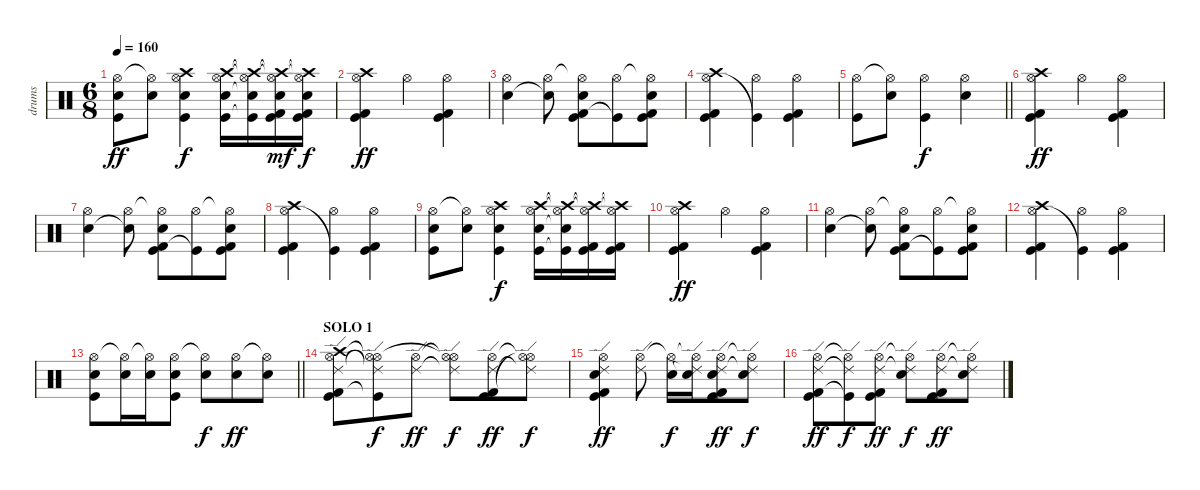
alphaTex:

\track ("drums" "drums") {instrument percussion}
\staff {score}
\articulation defaults
\ts (6 8)
\tempo 160
\clef neutral
\ks c
("Hi-Hat (open)" "Electric Snare (hit)" "Kick (hit)").8{dy ff} ("Hi-Hat (open)"{t} "Electric Snare (hit)").8 ("Crash high (hit)" "Hi-Hat (open)" "Electric Snare (hit)" "Kick (hit)").4{dy f} ("Crash high (hit)" "Hi-Hat (open)" "Electric Snare (hit)" "Kick (hit)").16 ("Crash high (hit)"{t} "Hi-Hat (open)"{t} "Electric Snare (hit)"{t} "Kick (hit)"{t}).16 ("Crash high (hit)"{t} "Hi-Hat (open)"{t} "Electric Snare (hit)" "Kick (hit) 2" "Kick (hit)").16{dy mf} ("Crash high (hit)"{t} "Hi-Hat (open)"{t} "Electric Snare (hit)" "Kick (hit) 2" "Kick (hit)").16{dy f} |
("Crash high (hit)" "Hi-Hat (open)" "Kick (hit) 2" "Kick (hit)").4{dy ff} "Hi-Hat (open)".4 ("Hi-Hat (open)" "Kick (hit) 2" "Kick (hit)").4 |
("Hi-Hat (open)" "Electric Snare (hit)").4 ("Hi-Hat (open)" "Electric Snare (hit)"{t}).8 ("Hi-Hat (open)"{t} "Kick (hit) 2" "Electric Snare (hit)" "Kick (hit)").8 ("Hi-Hat (open)" "Kick (hit)"{t}).8 ("Hi-Hat (open)"{t} "Kick (hit) 2" "Electric Snare (hit)" "Kick (hit)").8 |
("Crash high (hit)" "Hi-Hat (open)" "Kick (hit) 2" "Kick (hit)").4 ("Hi-Hat (open)" "Kick (hit)"{t}).4 ("Hi-Hat (open)" "Kick (hit) 2" "Kick (hit)").4 |
\barLineRight lightlight
("Hi-Hat (open)" "Kick (hit)").8 ("Hi-Hat (open)"{t} "Electric Snare (hit)").8 ("Hi-Hat (open)" "Kick (hit)").4{dy f} ("Hi-Hat (open)" "Electric Snare (hit)").4 |
("Crash high (hit)" "Hi-Hat (open)" "Kick (hit) 2" "Kick (hit)").4{dy ff} "Hi-Hat (open)".4 ("Hi-Hat (open)" "Kick (hit) 2" "Kick (hit)").4 |
("Hi-Hat (open)" "Electric Snare (hit)").4 ("Hi-Hat (open)" "Electric Snare (hit)"{t}).8 ("Hi-Hat (open)"{t} "Kick (hit) 2" "Electric Snare (hit)" "Kick (hit)").8 ("Hi-Hat (open)" "Kick (hit)"{t}).8 ("Hi-Hat (open)"{t} "Kick (hit) 2" "Electric Snare (hit)" "Kick (hit)").8 |
("Crash high (hit)" "Hi-Hat (open)" "Kick (hit) 2" "Kick (hit)").4 ("Hi-Hat (open)" "Kick (hit)"{t}).4 ("Hi-Hat (open)" "Kick (hit) 2" "Kick (hit)").4 |
("Hi-Hat (open)" "Electric Snare (hit)" "Kick (hit)").8 ("Hi-Hat (open)"{t} "Electric Snare (hit)").8 ("Crash high (hit)" "Hi-Hat (open)" "Electric Snare (hit)" "Kick (hit)").4{dy f} ("Crash high (hit)" "Hi-Hat (open)" "Electric Snare (hit)" "Kick (hit)").16 ("Crash high (hit)"{t} "Hi-Hat (open)"{t} "Electric Snare (hit)"{t} "Kick (hit)"{t}).16 ("Crash high (hit)"{t} "Hi-Hat (open)"{t} "Kick (hit) 2" "Kick (hit)").16 ("Crash high (hit)"{t} "Hi-Hat (open)"{t} "Kick (hit) 2" "Kick (hit)").16 |
("Crash high (hit)" "Hi-Hat (open)" "Kick (hit) 2" "Kick (hit)").4{dy ff} "Hi-Hat (open)".4 ("Hi-Hat (open)" "Kick (hit) 2" "Kick (hit)").4 |
("Hi-Hat (open)" "Electric Snare (hit)").4 ("Hi-Hat (open)" "Electric Snare (hit)"{t}).8 ("Hi-Hat (open)"{t} "Kick (hit) 2" "Electric Snare (hit)" "Kick (hit)").8 ("Hi-Hat (open)" "Kick (hit)"{t}).8 ("Hi-Hat (open)"{t} "Kick (hit) 2" "Electric Snare (hit)" "Kick (hit)").8 |
("Crash high (hit)" "Hi-Hat (open)" "Kick (hit) 2" "Kick (hit)").4 ("Hi-Hat (open)" "Kick (hit)"{t}).4 ("Hi-Hat (open)" "Kick (hit) 2" "Kick (hit)").4 |
\barLineRight lightlight
("Hi-Hat (open)" "Electric Snare (hit)" "Kick (hit)").8 ("Hi-Hat (open)"{t} "Electric Snare (hit)").16 ("Hi-Hat (open)"{t} "Electric Snare (hit)").16 ("Hi-Hat (open)" "Electric Snare (hit)" "Kick (hit)").8 ("Hi-Hat (open)"{t} "Electric Snare (hit)").8{dy f} ("Hi-Hat (open)" "Electric Snare (hit)").8{dy ff} ("Hi-Hat (open)"{t} "Electric Snare (hit)").8 |
\section ("" "SOLO 1")
("Crash high (hit)" "Hi-Hat (open)" "Ride (edge) 2" "Kick (hit) 2" "Kick (hit)").8 ("Hi-Hat (open)"{t} "Ride (edge) 2"{t} "Hi-Hat (open)"{t} "Kick (hit)"{t}).8{dy f} ("Hi-Hat (open)" "Ride (edge) 2").8{dy ff} ("Hi-Hat (open)"{t} "Ride (edge) 2"{t} "Hi-Hat (open)"{t}).8{dy f} ("Hi-Hat (open)" "Ride (edge) 2" "Kick (hit) 2" "Kick (hit)").8{dy ff} ("Hi-Hat (open)"{t} "Ride (edge) 2"{t} "Hi-Hat (open)"{t}).8{dy f} |
("Hi-Hat (open)" "Ride (edge) 2" "Snare (hit) 2" "Kick (hit) 2" "Kick (hit)").4{dy ff} ("Hi-Hat (open)" "Ride (edge) 2").8 ("Hi-Hat (open)"{t} "Electric Snare (hit)").16{dy f} ("Hi-Hat (open)"{t} "Ride (edge) 2"{t} "Electric Snare (hit)").16 ("Hi-Hat (open)" "Ride (edge) 2" "Electric Snare (hit)" "Kick (hit) 2" "Kick (hit)").8{dy ff} ("Hi-Hat (open)"{t} "Ride (edge) 2"{t} "Electric Snare (hit)").8{dy f} |
("Hi-Hat (open)" "Ride (edge) 2" "Kick (hit) 2" "Kick (hit)").8{dy ff} ("Hi-Hat (open)"{t} "Ride (edge) 2"{t} "Kick (hit)"{t}).8{dy f} ("Hi-Hat (open)" "Ride (edge) 2" "Kick (hit) 2" "Kick (hit)").8{dy ff} ("Hi-Hat (open)"{t} "Ride (edge) 2"{t} "Electric Snare (hit)").8{dy f} ("Hi-Hat (open)" "Ride (edge) 2" "Kick (hit) 2" "Kick (hit)").8{dy ff} ("Hi-Hat (open)"{t} "Ride (edge) 2"{t} "Electric Snare (hit)").8
